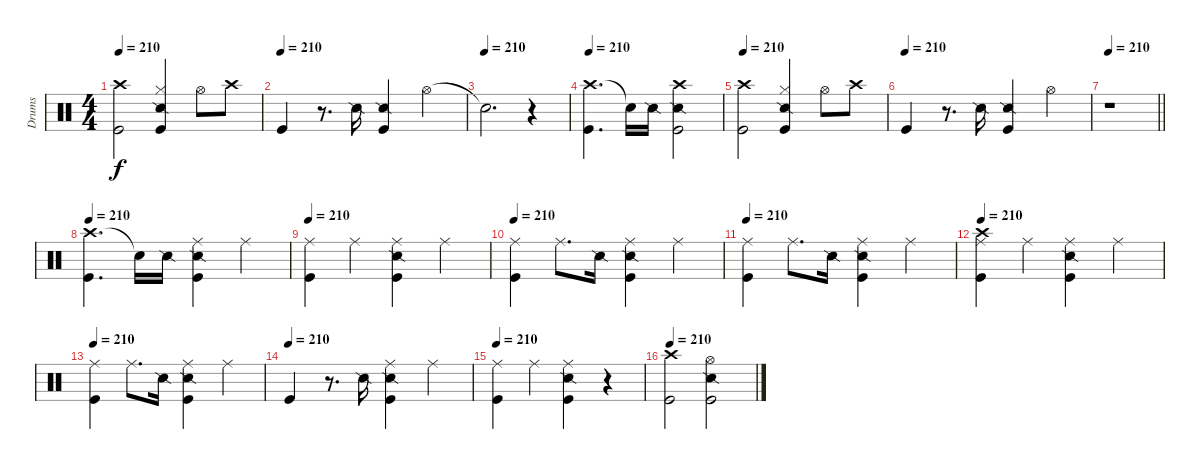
\track ("Drums" "Drums") {instrument percussion}
\staff {score}
\articulation defaults
\ts (4 4)
\tempo 210
\clef neutral
\ks c
("Crash high (hit)" "Kick (hit)").2{dy f} ("Hi-Hat (closed)" "Snare (side stick) 2" "Kick (hit)").4 "Hi-Hat (open)".8 "Crash high (hit)".8 |
\tempo (210)
"Kick (hit)".4 r.8{d} "Snare (side stick) 2".16 ("Snare (side stick) 2" "Kick (hit)").4 "Hi-Hat (open)".4 |
\tempo (210)
"Snare (hit)"{t}.2{d} r.4 |
\tempo 210
("Crash high (hit)" "Kick (hit)").4{d} "Snare (hit)"{t}.16 "Snare (side stick) 2".16 ("Crash high (hit)" "Snare (side stick) 2" "Kick (hit)").2 |
\tempo 210
("Crash high (hit)" "Kick (hit)").2 ("Hi-Hat (closed)" "Snare (side stick) 2" "Kick (hit)").4 "Hi-Hat (open)".8 "Crash high (hit)".8 |
\tempo (210)
"Kick (hit)".4 r.8{d} "Snare (side stick) 2".16 ("Snare (side stick) 2" "Kick (hit)").4 "Hi-Hat (open)".4 |
\tempo 210
\barLineRight lightlight
r.1 |
\tempo 210
("Crash high (hit)" "Kick (hit)").4{d} "Snare (hit)"{t}.16 "Snare (side stick) 2".16 ("Ride (middle)" "Snare (side stick) 2" "Kick (hit)").4 "Ride (middle)".4 |
\tempo 210
("Ride (middle)" "Kick (hit)").4 "Ride (middle)".4 ("Ride (middle)" "Snare (side stick) 2" "Kick (hit)").4 "Ride (middle)".4 |
\tempo 210
("Ride (middle)" "Kick (hit)").4 "Ride (middle)".8{d} "Snare (side stick) 2".16 ("Ride (middle)" "Snare (side stick) 2" "Kick (hit)").4 "Ride (middle)".4 |
\tempo 210
("Ride (middle)" "Kick (hit)").4 "Ride (middle)".8{d} "Snare (side stick) 2".16 ("Ride (middle)" "Snare (side stick) 2" "Kick (hit)").4 "Ride (middle)".4 |
\tempo 210
("Ride (middle)" "Crash high (hit)" "Kick (hit)").4 "Ride (middle)".4 ("Ride (middle)" "Snare (side stick) 2" "Kick (hit)").4 "Ride (middle)".4 |
\tempo 210
("Ride (middle)" "Kick (hit)").4 "Ride (middle)".8{d} "Snare (side stick) 2".16 ("Ride (middle)" "Snare (side stick) 2" "Kick (hit)").4 "Ride (middle)".4 |
\tempo (210)
"Kick (hit)".4 r.8{d} "Snare (side stick) 2".16 ("Ride (middle)" "Snare (side stick) 2" "Kick (hit)").4 "Ride (middle)".4 |
\tempo 210
("Ride (middle)" "Kick (hit)").4 "Ride (middle)".4 ("Ride (middle)" "Snare (side stick) 2" "Kick (hit)").4 r.4 |
\tempo 210
("Crash high (hit)" "Kick (hit)").2 ("Hi-Hat (open)" "Snare (side stick) 2" "Kick (hit)").2
